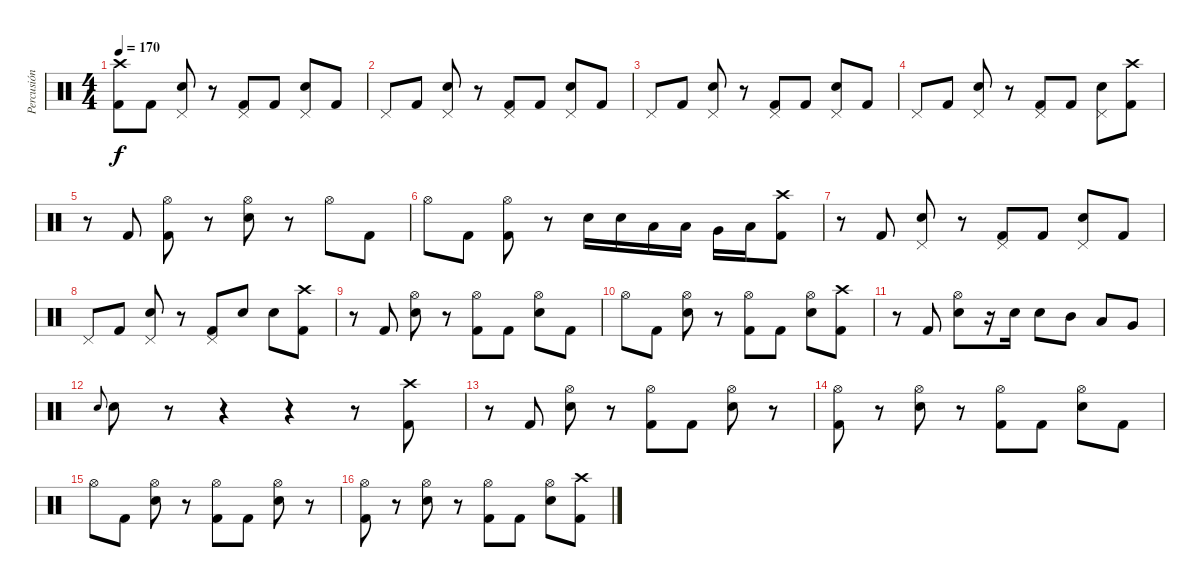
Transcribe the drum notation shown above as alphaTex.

\track ("Percusión" "Percusión") {instrument percussion}
\staff {score}
\articulation defaults
\ts (4 4)
\tempo 170
\clef neutral
\ks c
("Kick (hit) 2" "Crash high (hit)").8{dy f} "Kick (hit) 2".8 ("Snare (hit) 2" "Pedal Hi-Hat (hit)").8 r.8 ("Kick (hit) 2" "Pedal Hi-Hat (hit)").8 "Kick (hit) 2".8 ("Snare (hit) 2" "Pedal Hi-Hat (hit)").8 "Kick (hit) 2".8 |
"Pedal Hi-Hat (hit)".8 "Kick (hit) 2".8 ("Snare (hit) 2" "Pedal Hi-Hat (hit)").8 r.8 ("Kick (hit) 2" "Pedal Hi-Hat (hit)").8 "Kick (hit) 2".8 ("Snare (hit) 2" "Pedal Hi-Hat (hit)").8 "Kick (hit) 2".8 |
"Pedal Hi-Hat (hit)".8 "Kick (hit) 2".8 ("Snare (hit) 2" "Pedal Hi-Hat (hit)").8 r.8 ("Kick (hit) 2" "Pedal Hi-Hat (hit)").8 "Kick (hit) 2".8 ("Snare (hit) 2" "Pedal Hi-Hat (hit)").8 "Kick (hit) 2".8 |
"Pedal Hi-Hat (hit)".8 "Kick (hit) 2".8 ("Snare (hit) 2" "Pedal Hi-Hat (hit)").8 r.8 ("Kick (hit) 2" "Pedal Hi-Hat (hit)").8 "Kick (hit) 2".8 ("Snare (hit) 2" "Pedal Hi-Hat (hit)").8 ("Kick (hit) 2" "Crash high (hit)").8 |
r.8 "Kick (hit) 2".8 ("Kick (hit) 2" "Hi-Hat (open)").8 r.8 ("Snare (hit) 2" "Hi-Hat (open)").8 r.8 "Hi-Hat (open)".8 "Kick (hit) 2".8 |
"Hi-Hat (open)".8 "Kick (hit) 2".8 ("Kick (hit) 2" "Hi-Hat (open)").8 r.8 "Snare (hit) 2".16 "Snare (hit) 2".16 "Low Tom (hit)".16 "Low Tom (hit)".16 "Very Low Tom (hit)".16 "Low Floor Tom (hit)".16 ("Kick (hit) 2" "Crash high (hit)").8 |
r.8 "Kick (hit) 2".8 ("Snare (hit) 2" "Pedal Hi-Hat (hit)").8 r.8 ("Kick (hit) 2" "Pedal Hi-Hat (hit)").8 "Kick (hit) 2".8 ("Snare (hit) 2" "Pedal Hi-Hat (hit)").8 "Kick (hit) 2".8 |
"Pedal Hi-Hat (hit)".8 "Kick (hit) 2".8 ("Snare (hit) 2" "Pedal Hi-Hat (hit)").8 r.8 ("Kick (hit) 2" "Pedal Hi-Hat (hit)").8 "Snare (hit) 2".8 "Snare (hit) 2".8 ("Kick (hit) 2" "Crash high (hit)").8 |
r.8 "Kick (hit) 2".8 ("Snare (hit) 2" "Hi-Hat (open)").8 r.8 ("Kick (hit) 2" "Hi-Hat (open)").8 "Kick (hit) 2".8 ("Snare (hit) 2" "Hi-Hat (open)").8 "Kick (hit) 2".8 |
"Hi-Hat (open)".8 "Kick (hit) 2".8 ("Snare (hit) 2" "Hi-Hat (open)").8 r.8 ("Kick (hit) 2" "Hi-Hat (open)").8 "Kick (hit) 2".8 ("Snare (hit) 2" "Hi-Hat (open)").8 ("Kick (hit) 2" "Crash high (hit)").8 |
r.8 "Kick (hit) 2".8 ("Snare (hit) 2" "Hi-Hat (open)").8 r.16 "Snare (hit) 2".16 "Snare (hit) 2".8 "Mid Tom (hit)".8 "Low Tom (hit)".8 "Very Low Tom (hit)".8 |
"Snare (hit) 2".8{gr onbeat} "Snare (hit) 2".8 r.8 r.4 r.4 r.8 ("Kick (hit) 2" "Crash high (hit)").8 |
r.8 "Kick (hit) 2".8 ("Snare (hit) 2" "Hi-Hat (open)").8 r.8 ("Kick (hit) 2" "Hi-Hat (open)").8 "Kick (hit) 2".8 ("Snare (hit) 2" "Hi-Hat (open)").8 r.8 |
("Kick (hit) 2" "Hi-Hat (open)").8 r.8 ("Snare (hit) 2" "Hi-Hat (open)").8 r.8 ("Kick (hit) 2" "Hi-Hat (open)").8 "Kick (hit) 2".8 ("Snare (hit) 2" "Hi-Hat (open)").8 "Kick (hit) 2".8 |
"Hi-Hat (open)".8 "Kick (hit) 2".8 ("Snare (hit) 2" "Hi-Hat (open)").8 r.8 ("Kick (hit) 2" "Hi-Hat (open)").8 "Kick (hit) 2".8 ("Snare (hit) 2" "Hi-Hat (open)").8 r.8 |
("Kick (hit) 2" "Hi-Hat (open)").8 r.8 ("Snare (hit) 2" "Hi-Hat (open)").8 r.8 ("Kick (hit) 2" "Hi-Hat (open)").8 "Kick (hit) 2".8 ("Snare (hit) 2" "Hi-Hat (open)").8 ("Kick (hit) 2" "Crash high (hit)").8
